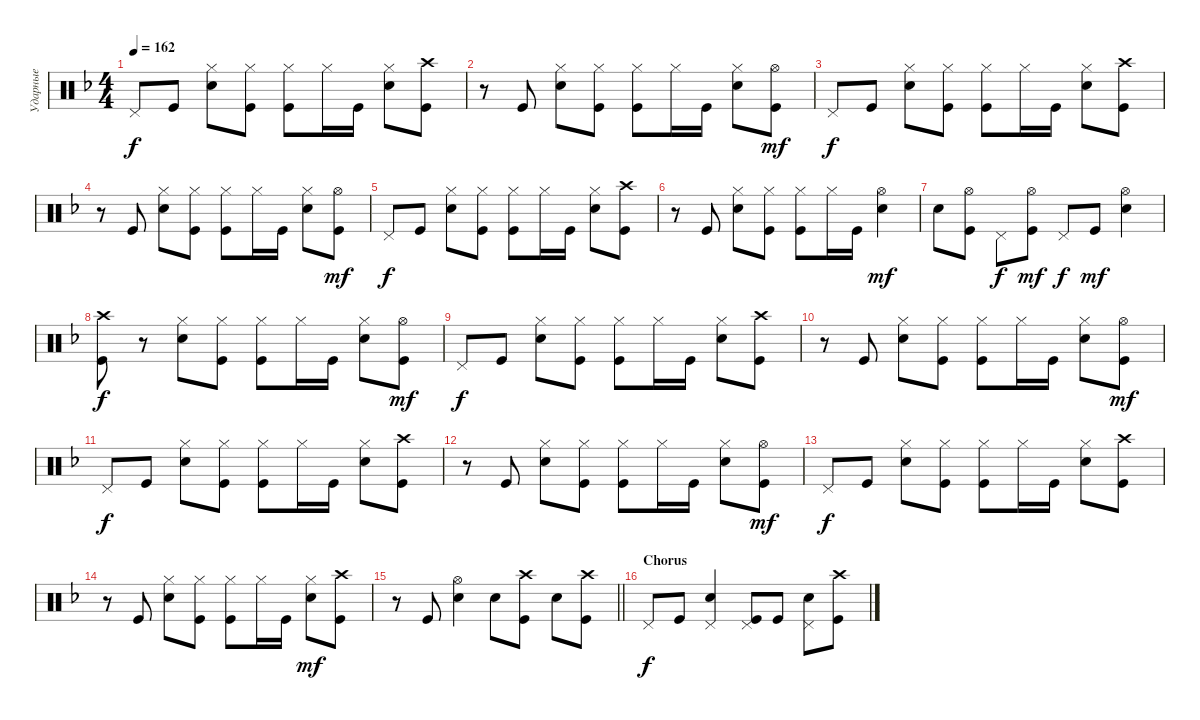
\track ("Ударные" "Ударные") {instrument percussion}
\staff {score}
\articulation defaults
\ts (4 4)
\tempo 162
\clef neutral
\ks dminor "Pedal Hi-Hat (hit)".8{dy f} "Kick (hit)".8
("Hi-Hat (closed)" "Snare (hit) 2").8 ("Hi-Hat (closed)" "Kick (hit)").8 ("Hi-Hat (closed)" "Kick (hit)").8 "Hi-Hat (closed)".16 "Kick (hit)".16 ("Hi-Hat (closed)" "Snare (hit) 2").8 ("Crash high (hit)" "Kick (hit)").8 |
r.8 "Kick (hit)".8 ("Hi-Hat (closed)" "Snare (hit) 2").8 ("Hi-Hat (closed)" "Kick (hit)").8 ("Hi-Hat (closed)" "Kick (hit)").8 "Hi-Hat (closed)".16 "Kick (hit)".16 ("Hi-Hat (closed)" "Snare (hit) 2").8 ("Hi-Hat (open)" "Kick (hit)").8{dy mf} |
"Pedal Hi-Hat (hit)".8{dy f} "Kick (hit)".8 ("Hi-Hat (closed)" "Snare (hit) 2").8 ("Hi-Hat (closed)" "Kick (hit)").8 ("Hi-Hat (closed)" "Kick (hit)").8 "Hi-Hat (closed)".16 "Kick (hit)".16 ("Hi-Hat (closed)" "Snare (hit) 2").8 ("Crash high (hit)" "Kick (hit)").8 |
r.8 "Kick (hit)".8 ("Hi-Hat (closed)" "Snare (hit) 2").8 ("Hi-Hat (closed)" "Kick (hit)").8 ("Hi-Hat (closed)" "Kick (hit)").8 "Hi-Hat (closed)".16 "Kick (hit)".16 ("Hi-Hat (closed)" "Snare (hit) 2").8 ("Hi-Hat (open)" "Kick (hit)").8{dy mf} |
"Pedal Hi-Hat (hit)".8{dy f} "Kick (hit)".8 ("Hi-Hat (closed)" "Snare (hit) 2").8 ("Hi-Hat (closed)" "Kick (hit)").8 ("Hi-Hat (closed)" "Kick (hit)").8 "Hi-Hat (closed)".16 "Kick (hit)".16 ("Hi-Hat (closed)" "Snare (hit) 2").8 ("Crash high (hit)" "Kick (hit)").8 |
r.8 "Kick (hit)".8 ("Hi-Hat (closed)" "Snare (hit) 2").8 ("Hi-Hat (closed)" "Kick (hit)").8 ("Hi-Hat (closed)" "Kick (hit)").8 "Hi-Hat (closed)".16 "Kick (hit)".16 ("Hi-Hat (open)" "Snare (hit) 2").4{dy mf} |
"Snare (hit) 2".8 ("Kick (hit)" "Hi-Hat (open)").8 "Pedal Hi-Hat (hit)".8{dy f} ("Hi-Hat (open)" "Kick (hit)").8{dy mf} "Pedal Hi-Hat (hit)".8{dy f} "Kick (hit)".8{dy mf} ("Snare (hit) 2" "Hi-Hat (open)").4 |
("Kick (hit)" "Crash high (hit)").8{dy f} r.8 ("Hi-Hat (closed)" "Snare (hit) 2").8 ("Hi-Hat (closed)" "Kick (hit)").8 ("Hi-Hat (closed)" "Kick (hit)").8 "Hi-Hat (closed)".16 "Kick (hit)".16 ("Hi-Hat (closed)" "Snare (hit) 2").8 ("Hi-Hat (open)" "Kick (hit)").8{dy mf} |
"Pedal Hi-Hat (hit)".8{dy f} "Kick (hit)".8 ("Hi-Hat (closed)" "Snare (hit) 2").8 ("Hi-Hat (closed)" "Kick (hit)").8 ("Hi-Hat (closed)" "Kick (hit)").8 "Hi-Hat (closed)".16 "Kick (hit)".16 ("Hi-Hat (closed)" "Snare (hit) 2").8 ("Crash high (hit)" "Kick (hit)").8 |
r.8 "Kick (hit)".8 ("Hi-Hat (closed)" "Snare (hit) 2").8 ("Hi-Hat (closed)" "Kick (hit)").8 ("Hi-Hat (closed)" "Kick (hit)").8 "Hi-Hat (closed)".16 "Kick (hit)".16 ("Hi-Hat (closed)" "Snare (hit) 2").8 ("Hi-Hat (open)" "Kick (hit)").8{dy mf} |
"Pedal Hi-Hat (hit)".8{dy f} "Kick (hit)".8 ("Hi-Hat (closed)" "Snare (hit) 2").8 ("Hi-Hat (closed)" "Kick (hit)").8 ("Hi-Hat (closed)" "Kick (hit)").8 "Hi-Hat (closed)".16 "Kick (hit)".16 ("Hi-Hat (closed)" "Snare (hit) 2").8 ("Crash high (hit)" "Kick (hit)").8 |
r.8 "Kick (hit)".8 ("Hi-Hat (closed)" "Snare (hit) 2").8 ("Hi-Hat (closed)" "Kick (hit)").8 ("Hi-Hat (closed)" "Kick (hit)").8 "Hi-Hat (closed)".16 "Kick (hit)".16 ("Hi-Hat (closed)" "Snare (hit) 2").8 ("Hi-Hat (open)" "Kick (hit)").8{dy mf} |
"Pedal Hi-Hat (hit)".8{dy f} "Kick (hit)".8 ("Hi-Hat (closed)" "Snare (hit) 2").8 ("Hi-Hat (closed)" "Kick (hit)").8 ("Hi-Hat (closed)" "Kick (hit)").8 "Hi-Hat (closed)".16 "Kick (hit)".16 ("Hi-Hat (closed)" "Snare (hit) 2").8 ("Crash high (hit)" "Kick (hit)").8 |
r.8 "Kick (hit)".8 ("Hi-Hat (closed)" "Snare (hit) 2").8 ("Hi-Hat (closed)" "Kick (hit)").8 ("Hi-Hat (closed)" "Kick (hit)").8 "Hi-Hat (closed)".16 "Kick (hit)".16 ("Hi-Hat (closed)" "Snare (hit) 2").8{dy mf} ("Kick (hit)" "Crash high (hit)").8 |
\barLineRight lightlight
r.8 "Kick (hit)".8 ("Snare (hit) 2" "Hi-Hat (open)").4 "Snare (hit) 2".8 ("Kick (hit)" "Crash high (hit)").8 "Snare (hit) 2".8 ("Kick (hit)" "Crash high (hit)").8 |
\section ("" "Chorus")
"Pedal Hi-Hat (hit)".8{dy f} "Kick (hit)".8 ("Snare (hit) 2" "Pedal Hi-Hat (hit)").4 ("Kick (hit)" "Pedal Hi-Hat (hit)").8 "Kick (hit)".8 ("Snare (hit) 2" "Pedal Hi-Hat (hit)").8 ("Kick (hit)" "Crash high (hit)").8
